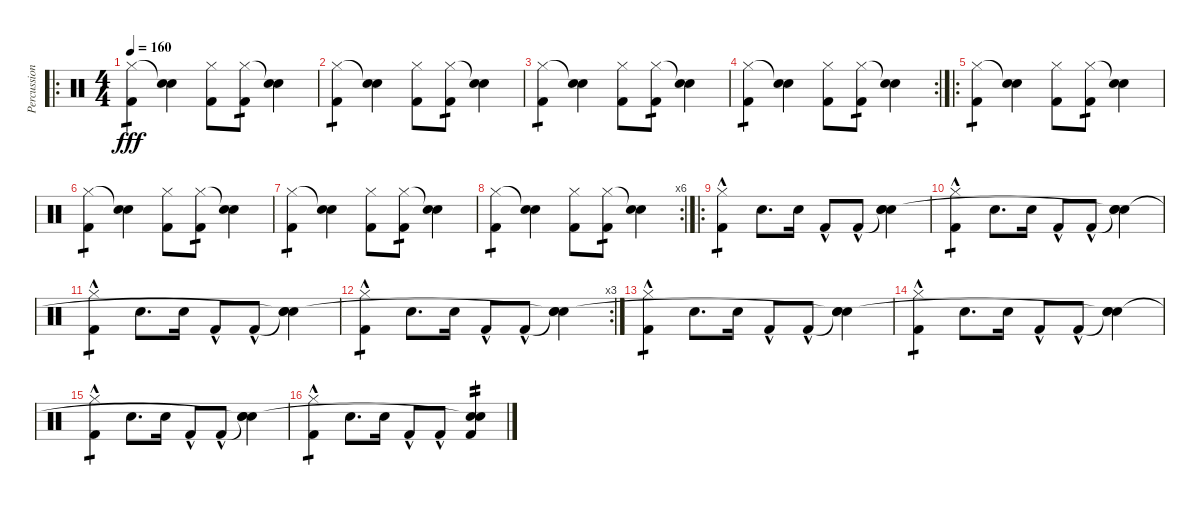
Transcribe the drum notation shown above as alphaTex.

\track ("Percussion" "Percussion") {instrument percussion}
\staff {score}
\articulation defaults
\ro
\ts (4 4)
\tempo 160
\clef neutral
\ks c
("Kick (hit) 2" "Hi-Hat (closed)").4{tp 1 dy fff} ("Snare (hit) 2" "Snare (hit)"{t}).4 ("Kick (hit) 2" "Hi-Hat (closed)").8 ("Kick (hit) 2" "Hi-Hat (closed)").8{tp 1} ("Snare (hit) 2" "Snare (hit)"{t}).4 |
("Kick (hit) 2" "Hi-Hat (closed)").4{tp 1} ("Snare (hit) 2" "Snare (hit)"{t}).4 ("Kick (hit) 2" "Hi-Hat (closed)").8 ("Kick (hit) 2" "Hi-Hat (closed)").8{tp 1} ("Snare (hit) 2" "Snare (hit)"{t}).4 |
("Kick (hit) 2" "Hi-Hat (closed)").4{tp 1} ("Snare (hit) 2" "Snare (hit)"{t}).4 ("Kick (hit) 2" "Hi-Hat (closed)").8 ("Kick (hit) 2" "Hi-Hat (closed)").8{tp 1} ("Snare (hit) 2" "Snare (hit)"{t}).4 |
\rc 2
("Kick (hit) 2" "Hi-Hat (closed)").4{tp 1} ("Snare (hit) 2" "Snare (hit)"{t}).4 ("Kick (hit) 2" "Hi-Hat (closed)").8 ("Kick (hit) 2" "Hi-Hat (closed)").8{tp 1} ("Snare (hit) 2" "Snare (hit)"{t}).4 |
\ro
("Kick (hit) 2" "Hi-Hat (closed)").4{tp 1} ("Snare (hit) 2" "Snare (hit)"{t}).4 ("Kick (hit) 2" "Hi-Hat (closed)").8 ("Kick (hit) 2" "Hi-Hat (closed)").8{tp 1} ("Snare (hit) 2" "Snare (hit)"{t}).4 |
("Kick (hit) 2" "Hi-Hat (closed)").4{tp 1} ("Snare (hit) 2" "Snare (hit)"{t}).4 ("Kick (hit) 2" "Hi-Hat (closed)").8 ("Kick (hit) 2" "Hi-Hat (closed)").8{tp 1} ("Snare (hit) 2" "Snare (hit)"{t}).4 |
("Kick (hit) 2" "Hi-Hat (closed)").4{tp 1} ("Snare (hit) 2" "Snare (hit)"{t}).4 ("Kick (hit) 2" "Hi-Hat (closed)").8 ("Kick (hit) 2" "Hi-Hat (closed)").8{tp 1} ("Snare (hit) 2" "Snare (hit)"{t}).4 |
\rc 6
("Kick (hit) 2" "Hi-Hat (closed)").4{tp 1} ("Snare (hit) 2" "Snare (hit)"{t}).4 ("Kick (hit) 2" "Hi-Hat (closed)").8 ("Kick (hit) 2" "Hi-Hat (closed)").8{tp 1} ("Snare (hit) 2" "Snare (hit)"{t}).4 |
\ro
("Kick (hit) 2"{hac} "Hi-Hat (closed)").4{tp 1} "Snare (hit) 2".8{d} "Snare (hit) 2".16 "Kick (hit) 2"{hac}.8 "Kick (hit) 2"{hac}.8 ("Snare (hit)"{t} "Snare (hit) 2" "Snare (hit)").4 |
("Kick (hit) 2"{hac} "Hi-Hat (closed)").4{tp 1} "Snare (hit) 2".8{d} "Snare (hit) 2".16 "Kick (hit) 2"{hac}.8 "Kick (hit) 2"{hac}.8 ("Snare (hit)"{t} "Snare (hit) 2" "Snare (hit)"{t}).4 |
("Kick (hit) 2"{hac} "Hi-Hat (closed)").4{tp 1} "Snare (hit) 2".8{d} "Snare (hit) 2".16 "Kick (hit) 2"{hac}.8 "Kick (hit) 2"{hac}.8 ("Snare (hit)"{t} "Snare (hit) 2" "Snare (hit)"{t}).4 |
\rc 3
("Kick (hit) 2"{hac} "Hi-Hat (closed)").4{tp 1} "Snare (hit) 2".8{d} "Snare (hit) 2".16 "Kick (hit) 2"{hac}.8 "Kick (hit) 2"{hac}.8 ("Snare (hit)"{t} "Snare (hit) 2" "Snare (hit)"{t}).4 |
("Kick (hit) 2"{hac} "Hi-Hat (closed)").4{tp 1} "Snare (hit) 2".8{d} "Snare (hit) 2".16 "Kick (hit) 2"{hac}.8 "Kick (hit) 2"{hac}.8 ("Snare (hit)"{t} "Snare (hit) 2" "Snare (hit)"{t}).4 |
("Kick (hit) 2"{hac} "Hi-Hat (closed)").4{tp 1} "Snare (hit) 2".8{d} "Snare (hit) 2".16 "Kick (hit) 2"{hac}.8 "Kick (hit) 2"{hac}.8 ("Snare (hit)"{t} "Snare (hit) 2" "Snare (hit)"{t}).4 |
("Kick (hit) 2"{hac} "Hi-Hat (closed)").4{tp 1} "Snare (hit) 2".8{d} "Snare (hit) 2".16 "Kick (hit) 2"{hac}.8 "Kick (hit) 2"{hac}.8 ("Snare (hit)"{t} "Snare (hit) 2" "Snare (hit)"{t}).4 |
("Kick (hit) 2"{hac} "Hi-Hat (closed)").4{tp 1} "Snare (hit) 2".8{d} "Snare (hit) 2".16 "Kick (hit) 2"{hac}.8 "Kick (hit) 2"{hac}.8 ("Kick (hit) 2" "Snare (hit) 2" "Snare (hit)"{t}).4{tp 2}
